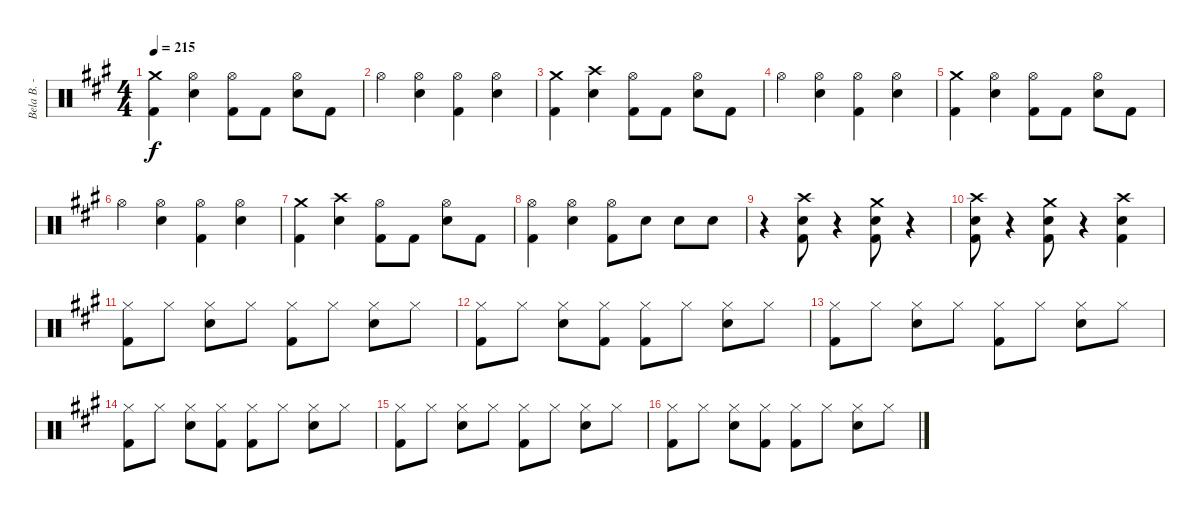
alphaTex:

\track ("Bela B. - Schlagzeug" "Bela B. - ") {instrument percussion}
\staff {score}
\articulation defaults
\ts (4 4)
\tempo 215
\clef neutral
\ks a
("Crash medium (hit)" "Kick (hit) 2").4{dy f} ("Hi-Hat (open)" "Snare (hit) 2").4 ("Hi-Hat (open)" "Kick (hit) 2").8 "Kick (hit) 2".8 ("Hi-Hat (open)" "Snare (hit) 2").8 "Kick (hit) 2".8 |
"Hi-Hat (open)".4 ("Hi-Hat (open)" "Snare (hit) 2").4 ("Hi-Hat (open)" "Kick (hit) 2").4 ("Hi-Hat (open)" "Snare (hit) 2").4 |
("Crash medium (hit)" "Kick (hit) 2").4 ("Crash high (hit)" "Snare (hit) 2").4 ("Hi-Hat (open)" "Kick (hit) 2").8 "Kick (hit) 2".8 ("Hi-Hat (open)" "Snare (hit) 2").8 "Kick (hit) 2".8 |
"Hi-Hat (open)".4 ("Hi-Hat (open)" "Snare (hit) 2").4 ("Hi-Hat (open)" "Kick (hit) 2").4 ("Hi-Hat (open)" "Snare (hit) 2").4 |
("Crash medium (hit)" "Kick (hit) 2").4 ("Hi-Hat (open)" "Snare (hit) 2").4 ("Hi-Hat (open)" "Kick (hit) 2").8 "Kick (hit) 2".8 ("Hi-Hat (open)" "Snare (hit) 2").8 "Kick (hit) 2".8 |
"Hi-Hat (open)".4 ("Hi-Hat (open)" "Snare (hit) 2").4 ("Hi-Hat (open)" "Kick (hit) 2").4 ("Hi-Hat (open)" "Snare (hit) 2").4 |
("Crash medium (hit)" "Kick (hit) 2").4 ("Crash high (hit)" "Snare (hit) 2").4 ("Hi-Hat (open)" "Kick (hit) 2").8 "Kick (hit) 2".8 ("Hi-Hat (open)" "Snare (hit) 2").8 "Kick (hit) 2".8 |
("Hi-Hat (open)" "Kick (hit) 2").4 ("Hi-Hat (open)" "Snare (hit) 2").4 ("Hi-Hat (open)" "Kick (hit) 2").8 "Snare (hit) 2".8 "Snare (hit) 2".8 "Snare (hit) 2".8 |
r.4 ("Crash high (hit)" "Snare (hit) 2" "Kick (hit) 2").8 r.4 ("Crash medium (hit)" "Snare (hit) 2" "Kick (hit) 2").8 r.4 |
("Crash high (hit)" "Snare (hit) 2" "Kick (hit) 2").8 r.4 ("Crash medium (hit)" "Snare (hit) 2" "Kick (hit) 2").8 r.4 ("Crash high (hit)" "Snare (hit) 2" "Kick (hit) 2").4 |
("Hi-Hat (closed)" "Kick (hit) 2").8 "Hi-Hat (closed)".8 ("Hi-Hat (closed)" "Snare (hit) 2").8 "Hi-Hat (closed)".8 ("Hi-Hat (closed)" "Kick (hit) 2").8 "Hi-Hat (closed)".8 ("Hi-Hat (closed)" "Snare (hit) 2").8 "Hi-Hat (closed)".8 |
("Hi-Hat (closed)" "Kick (hit) 2").8 "Hi-Hat (closed)".8 ("Hi-Hat (closed)" "Snare (hit) 2").8 ("Hi-Hat (closed)" "Kick (hit) 2").8 ("Hi-Hat (closed)" "Kick (hit) 2").8 "Hi-Hat (closed)".8 ("Hi-Hat (closed)" "Snare (hit) 2").8 "Hi-Hat (closed)".8 |
("Hi-Hat (closed)" "Kick (hit) 2").8 "Hi-Hat (closed)".8 ("Hi-Hat (closed)" "Snare (hit) 2").8 "Hi-Hat (closed)".8 ("Hi-Hat (closed)" "Kick (hit) 2").8 "Hi-Hat (closed)".8 ("Hi-Hat (closed)" "Snare (hit) 2").8 "Hi-Hat (closed)".8 |
("Hi-Hat (closed)" "Kick (hit) 2").8 "Hi-Hat (closed)".8 ("Hi-Hat (closed)" "Snare (hit) 2").8 ("Hi-Hat (closed)" "Kick (hit) 2").8 ("Hi-Hat (closed)" "Kick (hit) 2").8 "Hi-Hat (closed)".8 ("Hi-Hat (closed)" "Snare (hit) 2").8 "Hi-Hat (closed)".8 |
("Hi-Hat (closed)" "Kick (hit) 2").8 "Hi-Hat (closed)".8 ("Hi-Hat (closed)" "Snare (hit) 2").8 "Hi-Hat (closed)".8 ("Hi-Hat (closed)" "Kick (hit) 2").8 "Hi-Hat (closed)".8 ("Hi-Hat (closed)" "Snare (hit) 2").8 "Hi-Hat (closed)".8 |
("Hi-Hat (closed)" "Kick (hit) 2").8 "Hi-Hat (closed)".8 ("Hi-Hat (closed)" "Snare (hit) 2").8 ("Hi-Hat (closed)" "Kick (hit) 2").8 ("Hi-Hat (closed)" "Kick (hit) 2").8 "Hi-Hat (closed)".8 ("Hi-Hat (closed)" "Snare (hit) 2").8 "Hi-Hat (closed)".8
